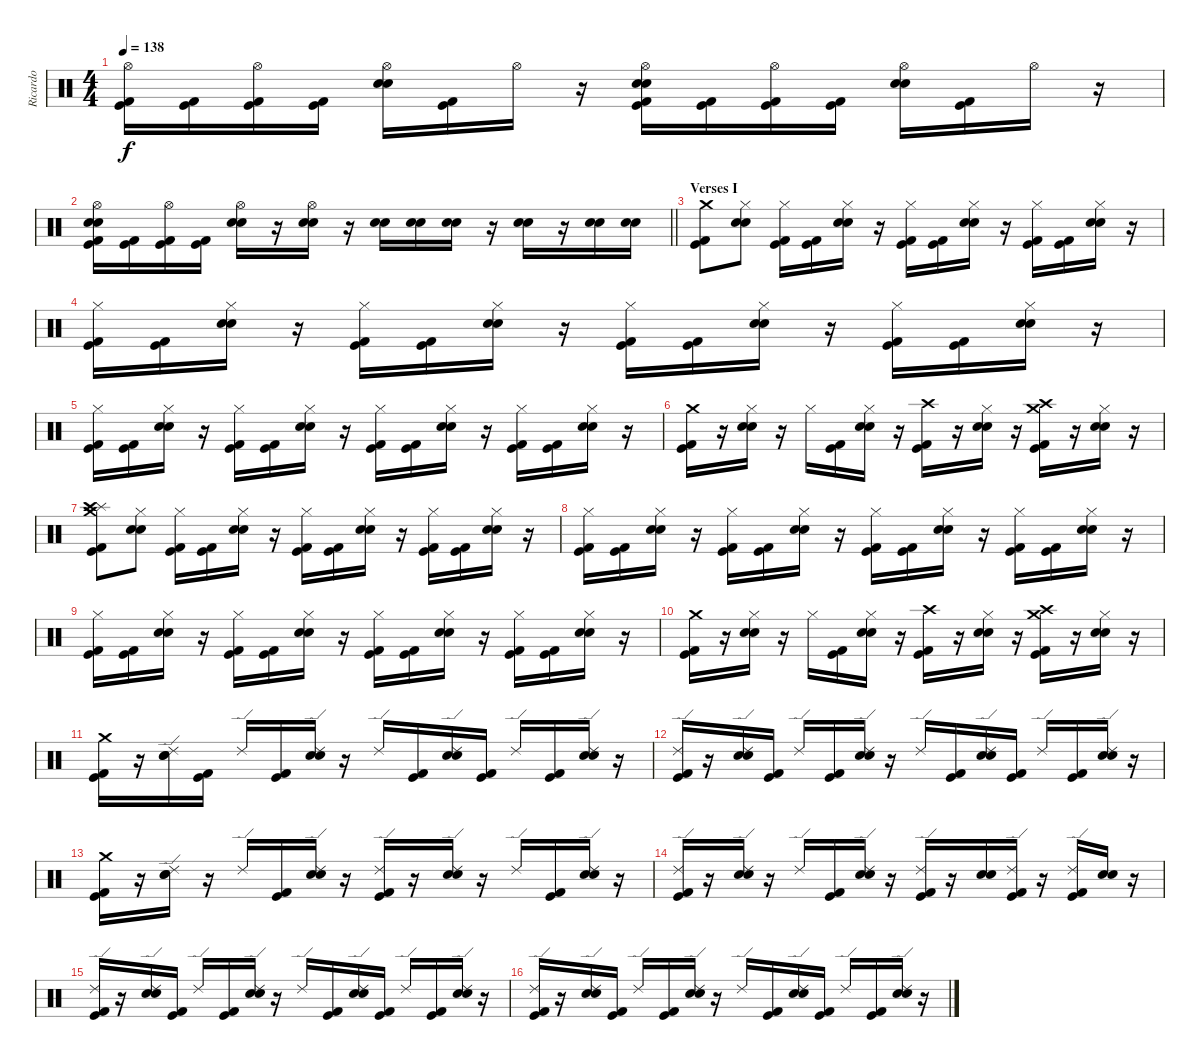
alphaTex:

\track ("Ricardo" "Ricardo") {instrument percussion}
\staff {score}
\articulation defaults
\ts (4 4)
\tempo 138
\clef neutral
\ks c
("Hi-Hat (open)" "Kick (hit) 2" "Kick (hit)").16{dy f} ("Kick (hit) 2" "Kick (hit)").16 ("Hi-Hat (open)" "Kick (hit) 2" "Kick (hit)").16 ("Kick (hit) 2" "Kick (hit)").16 ("Hi-Hat (open)" "Electric Snare (hit)" "Snare (hit) 2").16 ("Kick (hit) 2" "Kick (hit)").16 "Hi-Hat (open)".16 r.16 ("Electric Snare (hit)" "Snare (hit) 2" "Kick (hit) 2" "Kick (hit)" "Hi-Hat (open)").16 ("Kick (hit) 2" "Kick (hit)").16 ("Kick (hit) 2" "Kick (hit)" "Hi-Hat (open)").16 ("Kick (hit) 2" "Kick (hit)").16 ("Electric Snare (hit)" "Snare (hit) 2" "Hi-Hat (open)").16 ("Kick (hit) 2" "Kick (hit)").16 "Hi-Hat (open)".16 r.16 |
\barLineRight lightlight
("Electric Snare (hit)" "Snare (hit) 2" "Hi-Hat (open)" "Kick (hit) 2" "Kick (hit)").16 ("Kick (hit) 2" "Kick (hit)").16 ("Hi-Hat (open)" "Kick (hit) 2" "Kick (hit)").16 ("Kick (hit) 2" "Kick (hit)").16 ("Hi-Hat (open)" "Electric Snare (hit)" "Snare (hit) 2").16 r.16 ("Electric Snare (hit)" "Snare (hit) 2" "Hi-Hat (open)").16 r.16 ("Snare (hit) 2" "Electric Snare (hit)").16 ("Snare (hit) 2" "Electric Snare (hit)").16 ("Snare (hit) 2" "Electric Snare (hit)").16 r.16 ("Snare (hit) 2" "Electric Snare (hit)").16 r.16 ("Snare (hit) 2" "Electric Snare (hit)").16 ("Snare (hit) 2" "Electric Snare (hit)").16 |
\section ("" "Verses I")
("Crash medium (hit)" "Kick (hit) 2" "Kick (hit)").8 ("Hi-Hat (closed)" "Electric Snare (hit)" "Snare (hit) 2").8 ("Hi-Hat (closed)" "Kick (hit) 2" "Kick (hit)").16 ("Kick (hit) 2" "Kick (hit)").16 ("Hi-Hat (closed)" "Electric Snare (hit)" "Snare (hit) 2").16 r.16 ("Hi-Hat (closed)" "Kick (hit) 2" "Kick (hit)").16 ("Kick (hit) 2" "Kick (hit)").16 ("Hi-Hat (closed)" "Electric Snare (hit)" "Snare (hit) 2").16 r.16 ("Hi-Hat (closed)" "Kick (hit) 2" "Kick (hit)").16 ("Kick (hit) 2" "Kick (hit)").16 ("Hi-Hat (closed)" "Electric Snare (hit)" "Snare (hit) 2").16 r.16 |
("Hi-Hat (closed)" "Kick (hit) 2" "Kick (hit)").16 ("Kick (hit) 2" "Kick (hit)").16 ("Hi-Hat (closed)" "Electric Snare (hit)" "Snare (hit) 2").16 r.16 ("Hi-Hat (closed)" "Kick (hit) 2" "Kick (hit)").16 ("Kick (hit) 2" "Kick (hit)").16 ("Hi-Hat (closed)" "Electric Snare (hit)" "Snare (hit) 2").16 r.16 ("Hi-Hat (closed)" "Kick (hit) 2" "Kick (hit)").16 ("Kick (hit) 2" "Kick (hit)").16 ("Hi-Hat (closed)" "Electric Snare (hit)" "Snare (hit) 2").16 r.16 ("Hi-Hat (closed)" "Kick (hit) 2" "Kick (hit)").16 ("Kick (hit) 2" "Kick (hit)").16 ("Hi-Hat (closed)" "Electric Snare (hit)" "Snare (hit) 2").16 r.16 |
("Hi-Hat (closed)" "Kick (hit) 2" "Kick (hit)").16 ("Kick (hit) 2" "Kick (hit)").16 ("Hi-Hat (closed)" "Electric Snare (hit)" "Snare (hit) 2").16 r.16 ("Hi-Hat (closed)" "Kick (hit) 2" "Kick (hit)").16 ("Kick (hit) 2" "Kick (hit)").16 ("Hi-Hat (closed)" "Electric Snare (hit)" "Snare (hit) 2").16 r.16 ("Hi-Hat (closed)" "Kick (hit) 2" "Kick (hit)").16 ("Kick (hit) 2" "Kick (hit)").16 ("Hi-Hat (closed)" "Electric Snare (hit)" "Snare (hit) 2").16 r.16 ("Hi-Hat (closed)" "Kick (hit) 2" "Kick (hit)").16 ("Kick (hit) 2" "Kick (hit)").16 ("Hi-Hat (closed)" "Electric Snare (hit)" "Snare (hit) 2").16 r.16 |
("Crash medium (hit)" "Kick (hit) 2" "Kick (hit)").16 r.16 ("Hi-Hat (closed)" "Electric Snare (hit)" "Snare (hit) 2").16 r.16 "Hi-Hat (closed)".16 ("Kick (hit) 2" "Kick (hit)").16 ("Hi-Hat (closed)" "Electric Snare (hit)" "Snare (hit) 2").16 r.16 ("Crash high (hit)" "Kick (hit) 2" "Kick (hit)").16 r.16 ("Hi-Hat (closed)" "Electric Snare (hit)" "Snare (hit) 2").16 r.16 ("Crash medium (hit)" "Crash high (hit)" "Kick (hit) 2" "Kick (hit)").16 r.16 ("Hi-Hat (closed)" "Electric Snare (hit)" "Snare (hit) 2").16 r.16 |
("Splash (hit)" "Crash high (hit)" "Crash medium (hit)" "Kick (hit) 2" "Kick (hit)").8 ("Hi-Hat (closed)" "Electric Snare (hit)" "Snare (hit) 2").8 ("Hi-Hat (closed)" "Kick (hit) 2" "Kick (hit)").16 ("Kick (hit) 2" "Kick (hit)").16 ("Hi-Hat (closed)" "Electric Snare (hit)" "Snare (hit) 2").16 r.16 ("Hi-Hat (closed)" "Kick (hit) 2" "Kick (hit)").16 ("Kick (hit) 2" "Kick (hit)").16 ("Hi-Hat (closed)" "Electric Snare (hit)" "Snare (hit) 2").16 r.16 ("Hi-Hat (closed)" "Kick (hit) 2" "Kick (hit)").16 ("Kick (hit) 2" "Kick (hit)").16 ("Hi-Hat (closed)" "Electric Snare (hit)" "Snare (hit) 2").16 r.16 |
("Hi-Hat (closed)" "Kick (hit) 2" "Kick (hit)").16 ("Kick (hit) 2" "Kick (hit)").16 ("Hi-Hat (closed)" "Electric Snare (hit)" "Snare (hit) 2").16 r.16 ("Hi-Hat (closed)" "Kick (hit) 2" "Kick (hit)").16 ("Kick (hit) 2" "Kick (hit)").16 ("Hi-Hat (closed)" "Electric Snare (hit)" "Snare (hit) 2").16 r.16 ("Hi-Hat (closed)" "Kick (hit) 2" "Kick (hit)").16 ("Kick (hit) 2" "Kick (hit)").16 ("Hi-Hat (closed)" "Electric Snare (hit)" "Snare (hit) 2").16 r.16 ("Hi-Hat (closed)" "Kick (hit) 2" "Kick (hit)").16 ("Kick (hit) 2" "Kick (hit)").16 ("Hi-Hat (closed)" "Electric Snare (hit)" "Snare (hit) 2").16 r.16 |
("Hi-Hat (closed)" "Kick (hit) 2" "Kick (hit)").16 ("Kick (hit) 2" "Kick (hit)").16 ("Hi-Hat (closed)" "Electric Snare (hit)" "Snare (hit) 2").16 r.16 ("Hi-Hat (closed)" "Kick (hit) 2" "Kick (hit)").16 ("Kick (hit) 2" "Kick (hit)").16 ("Hi-Hat (closed)" "Electric Snare (hit)" "Snare (hit) 2").16 r.16 ("Hi-Hat (closed)" "Kick (hit) 2" "Kick (hit)").16 ("Kick (hit) 2" "Kick (hit)").16 ("Hi-Hat (closed)" "Electric Snare (hit)" "Snare (hit) 2").16 r.16 ("Hi-Hat (closed)" "Kick (hit) 2" "Kick (hit)").16 ("Kick (hit) 2" "Kick (hit)").16 ("Hi-Hat (closed)" "Electric Snare (hit)" "Snare (hit) 2").16 r.16 |
("Crash medium (hit)" "Kick (hit) 2" "Kick (hit)").16 r.16 ("Hi-Hat (closed)" "Electric Snare (hit)" "Snare (hit) 2").16 r.16 "Hi-Hat (closed)".16 ("Kick (hit) 2" "Kick (hit)").16 ("Hi-Hat (closed)" "Electric Snare (hit)" "Snare (hit) 2").16 r.16 ("Crash high (hit)" "Kick (hit) 2" "Kick (hit)").16 r.16 ("Hi-Hat (closed)" "Electric Snare (hit)" "Snare (hit) 2").16 r.16 ("Crash high (hit)" "Kick (hit) 2" "Kick (hit)" "Crash medium (hit)").16 r.16 ("Hi-Hat (closed)" "Electric Snare (hit)" "Snare (hit) 2").16 r.16 |
("Crash medium (hit)" "Kick (hit) 2" "Kick (hit)").16 r.16 ("Ride (edge) 2" "Electric Snare (hit)" "Snare (hit) 2").16 ("Kick (hit) 2" "Kick (hit)").16 "Ride (edge) 2".16 ("Kick (hit) 2" "Kick (hit)").16 ("Ride (edge) 2" "Electric Snare (hit)" "Snare (hit) 2").16 r.16 "Ride (edge) 2".16 ("Kick (hit) 2" "Kick (hit)").16 ("Snare (hit) 2" "Electric Snare (hit)" "Ride (edge) 2").16 ("Kick (hit) 2" "Kick (hit)").16 "Ride (edge) 2".16 ("Kick (hit) 2" "Kick (hit)").16 ("Ride (edge) 2" "Electric Snare (hit)" "Snare (hit) 2").16 r.16 |
("Ride (edge) 2" "Kick (hit) 2" "Kick (hit)").16 r.16 ("Electric Snare (hit)" "Snare (hit) 2" "Ride (edge) 2").16 ("Kick (hit) 2" "Kick (hit)").16 "Ride (edge) 2".16 ("Kick (hit) 2" "Kick (hit)").16 ("Electric Snare (hit)" "Snare (hit) 2" "Ride (edge) 2").16 r.16 "Ride (edge) 2".16 ("Kick (hit) 2" "Kick (hit)").16 ("Snare (hit) 2" "Electric Snare (hit)" "Ride (edge) 2").16 ("Kick (hit)" "Kick (hit) 2").16 "Ride (edge) 2".16 ("Kick (hit) 2" "Kick (hit)").16 ("Electric Snare (hit)" "Snare (hit) 2" "Ride (edge) 2").16 r.16 |
("Crash medium (hit)" "Kick (hit) 2" "Kick (hit)").16 r.16 ("Electric Snare (hit)" "Snare (hit) 2" "Ride (edge) 2").16 r.16 "Ride (edge) 2".16 ("Kick (hit) 2" "Kick (hit)").16 ("Electric Snare (hit)" "Snare (hit) 2" "Ride (edge) 2").16 r.16 ("Ride (edge) 2" "Kick (hit) 2" "Kick (hit)").16 r.16 ("Electric Snare (hit)" "Snare (hit) 2" "Ride (edge) 2").16 r.16 "Ride (edge) 2".16 ("Kick (hit) 2" "Kick (hit)").16 ("Electric Snare (hit)" "Snare (hit) 2" "Ride (edge) 2").16 r.16 |
("Kick (hit) 2" "Ride (edge) 2" "Kick (hit)").16 r.16 ("Electric Snare (hit)" "Snare (hit) 2" "Ride (edge) 2").16 r.16 "Ride (edge) 2".16 ("Kick (hit) 2" "Kick (hit)").16 ("Electric Snare (hit)" "Snare (hit) 2" "Ride (edge) 2").16 r.16 ("Ride (edge) 2" "Kick (hit) 2" "Kick (hit)").16 r.16 ("Electric Snare (hit)" "Snare (hit) 2").16 ("Ride (edge) 2" "Kick (hit) 2" "Kick (hit)").16 r.16 ("Ride (edge) 2" "Kick (hit) 2" "Kick (hit)").16 ("Electric Snare (hit)" "Snare (hit) 2").16 r.16 |
("Ride (edge) 2" "Kick (hit) 2" "Kick (hit)").16 r.16 ("Electric Snare (hit)" "Snare (hit) 2" "Ride (edge) 2").16 ("Kick (hit) 2" "Kick (hit)").16 "Ride (edge) 2".16 ("Kick (hit) 2" "Kick (hit)").16 ("Electric Snare (hit)" "Snare (hit) 2" "Ride (edge) 2").16 r.16 "Ride (edge) 2".16 ("Kick (hit) 2" "Kick (hit)").16 ("Electric Snare (hit)" "Snare (hit) 2" "Ride (edge) 2").16 ("Kick (hit) 2" "Kick (hit)").16 "Ride (edge) 2".16 ("Kick (hit) 2" "Kick (hit)").16 ("Electric Snare (hit)" "Snare (hit) 2" "Ride (edge) 2").16 r.16 |
("Ride (edge) 2" "Kick (hit) 2" "Kick (hit)").16 r.16 ("Electric Snare (hit)" "Snare (hit) 2" "Ride (edge) 2").16 ("Kick (hit) 2" "Kick (hit)").16 "Ride (edge) 2".16 ("Kick (hit) 2" "Kick (hit)").16 ("Electric Snare (hit)" "Snare (hit) 2" "Ride (edge) 2").16 r.16 "Ride (edge) 2".16 ("Kick (hit) 2" "Kick (hit)").16 ("Electric Snare (hit)" "Snare (hit) 2" "Ride (edge) 2").16 ("Kick (hit) 2" "Kick (hit)").16 "Ride (edge) 2".16 ("Kick (hit) 2" "Kick (hit)").16 ("Electric Snare (hit)" "Snare (hit) 2" "Ride (edge) 2").16 r.16
